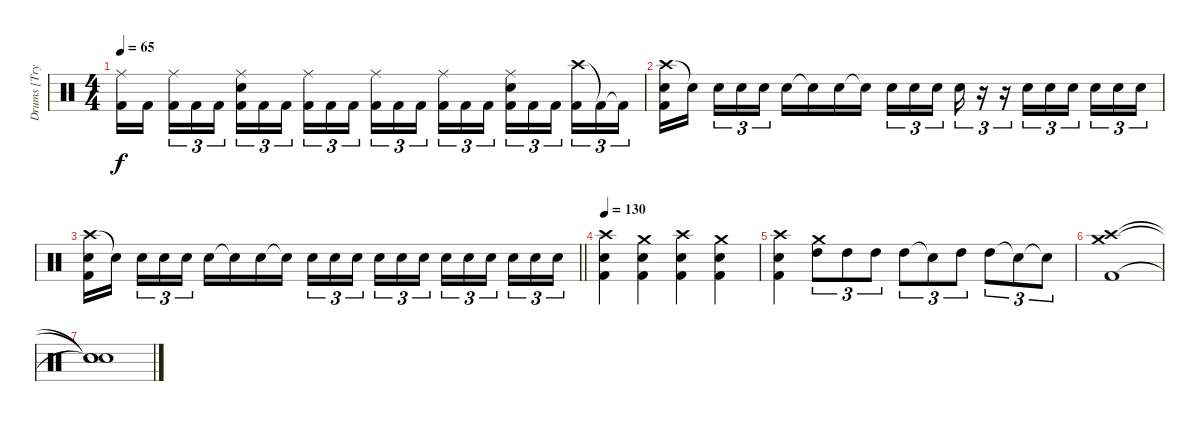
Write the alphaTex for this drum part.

\track ("Drums [Trym]" "Drums [Try") {instrument percussion}
\staff {score}
\articulation defaults
\ts (4 4)
\tempo 65
\clef neutral
\ks c
("Ride (middle)" "Kick (hit) 2").16{dy f} "Kick (hit) 2".16{beam splitsecondary} ("Ride (middle)" "Kick (hit) 2").16{tu (3 2)} "Kick (hit) 2".16{tu (3 2)} "Kick (hit) 2".16{tu (3 2)} ("Ride (middle)" "Electric Snare (hit)" "Kick (hit) 2").16{tu (3 2)} "Kick (hit) 2".16{tu (3 2)} "Kick (hit) 2".16{tu (3 2) beam splitsecondary} ("Ride (middle)" "Kick (hit) 2").16{tu (3 2)} "Kick (hit) 2".16{tu (3 2)} "Kick (hit) 2".16{tu (3 2)} ("Ride (middle)" "Kick (hit) 2").16{tu (3 2)} "Kick (hit) 2".16{tu (3 2)} "Kick (hit) 2".16{tu (3 2) beam splitsecondary} ("Ride (middle)" "Kick (hit) 2").16{tu (3 2)} "Kick (hit) 2".16{tu (3 2)} "Kick (hit) 2".16{tu (3 2)} ("Ride (middle)" "Electric Snare (hit)" "Kick (hit) 2").16{tu (3 2)} "Kick (hit) 2".16{tu (3 2)} "Kick (hit) 2".16{tu (3 2) beam splitsecondary} ("Crash high (hit)" "Kick (hit) 2").16{tu (3 2)} "Kick (hit) 2"{t}.16{tu (3 2)} "Kick (hit) 2"{t}.16{tu (3 2)} |
("Crash high (hit)" "Electric Snare (hit)" "Kick (hit) 2").16 "Snare (hit)"{t}.16{beam splitsecondary} "Electric Snare (hit)".16{tu (3 2)} "Electric Snare (hit)".16{tu (3 2)} "Electric Snare (hit)".16{tu (3 2)} "Electric Snare (hit)".16 "Snare (hit)"{t}.16 "Electric Snare (hit)".16 "Snare (hit)"{t}.16 "Electric Snare (hit)".16{tu (3 2)} "Electric Snare (hit)".16{tu (3 2)} "Electric Snare (hit)".16{tu (3 2) beam splitsecondary} "Electric Snare (hit)".16{tu (3 2)} r.16{tu (3 2)} r.16{tu (3 2)} "Electric Snare (hit)".16{tu (3 2)} "Electric Snare (hit)".16{tu (3 2)} "Electric Snare (hit)".16{tu (3 2) beam splitsecondary} "Electric Snare (hit)".16{tu (3 2)} "Electric Snare (hit)".16{tu (3 2)} "Electric Snare (hit)".16{tu (3 2)} |
\barLineRight lightlight
("Crash high (hit)" "Electric Snare (hit)" "Kick (hit) 2").16 "Snare (hit)"{t}.16{beam splitsecondary} "Electric Snare (hit)".16{tu (3 2)} "Electric Snare (hit)".16{tu (3 2)} "Electric Snare (hit)".16{tu (3 2)} "Electric Snare (hit)".16 "Snare (hit)"{t}.16 "Electric Snare (hit)".16 "Snare (hit)"{t}.16 "Electric Snare (hit)".16{tu (3 2)} "Electric Snare (hit)".16{tu (3 2)} "Electric Snare (hit)".16{tu (3 2) beam splitsecondary} "Electric Snare (hit)".16{tu (3 2)} "Electric Snare (hit)".16{tu (3 2)} "Electric Snare (hit)".16{tu (3 2)} "Electric Snare (hit)".16{tu (3 2)} "Electric Snare (hit)".16{tu (3 2)} "Electric Snare (hit)".16{tu (3 2) beam splitsecondary} "Electric Snare (hit)".16{tu (3 2)} "Electric Snare (hit)".16{tu (3 2)} "Electric Snare (hit)".16{tu (3 2)} |
\tempo 130
("Crash high (hit)" "Electric Snare (hit)" "Kick (hit) 2").4 ("Crash medium (hit)" "Electric Snare (hit)" "Kick (hit) 2").4 ("Crash high (hit)" "Electric Snare (hit)" "Kick (hit) 2").4 ("Crash medium (hit)" "Electric Snare (hit)" "Kick (hit) 2").4 |
("Crash high (hit)" "Electric Snare (hit)" "Kick (hit) 2").4 ("Crash medium (hit)" "High Tom (hit)").8{tu (3 2)} "High Tom (hit)".8{tu (3 2)} "High Tom (hit)".8{tu (3 2)} "High Tom (hit)".8{tu (3 2)} "Snare (hit)"{t}.8{tu (3 2)} "High Tom (hit)".8{tu (3 2)} "High Tom (hit)".8{tu (3 2)} "Snare (hit)"{t}.8{tu (3 2)} "Snare (hit)"{t}.8{tu (3 2)} |
("Crash high (hit)" "Crash medium (hit)" "Kick (hit) 2").1 |
("Snare (hit)"{t} "Snare (hit)"{t} "Snare (hit)"{t}).1
